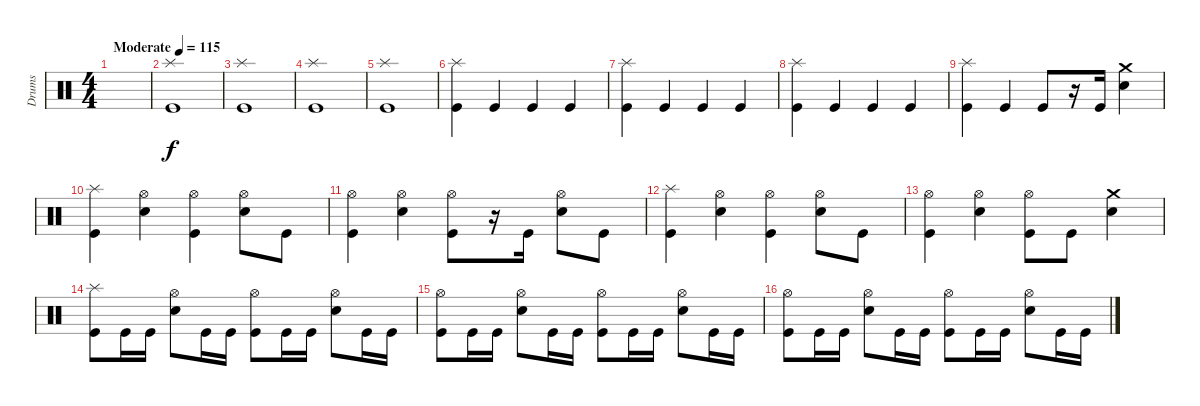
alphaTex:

\track ("Drums" "Drums") {instrument percussion}
\staff {score}
\articulation defaults
\ts (4 4)
\tempo (115 "Moderate")
\clef neutral
\ks c
|
("Splash (hit)" "Kick (hit)").1 |
("Splash (hit)" "Kick (hit)").1 |
("Splash (hit)" "Kick (hit)").1 |
("Splash (hit)" "Kick (hit)").1 |
("Splash (hit)" "Kick (hit)").4 "Kick (hit)".4 "Kick (hit)".4 "Kick (hit)".4 |
("Splash (hit)" "Kick (hit)").4 "Kick (hit)".4 "Kick (hit)".4 "Kick (hit)".4 |
("Splash (hit)" "Kick (hit)").4 "Kick (hit)".4 "Kick (hit)".4 "Kick (hit)".4 |
("Splash (hit)" "Kick (hit)").4 "Kick (hit)".4 "Kick (hit)".8 r.16 "Kick (hit)".16 ("Crash medium (hit)" "Snare (hit) 2").4 |
("Splash (hit)" "Kick (hit)").4 ("Hi-Hat (open)" "Snare (hit) 2").4 ("Hi-Hat (open)" "Kick (hit)").4 ("Hi-Hat (open)" "Snare (hit) 2").8 "Kick (hit)".8 |
("Hi-Hat (open)" "Kick (hit)").4 ("Hi-Hat (open)" "Snare (hit) 2").4 ("Hi-Hat (open)" "Kick (hit)").8 r.16 "Kick (hit)".16 ("Hi-Hat (open)" "Snare (hit) 2").8 "Kick (hit)".8 |
("Splash (hit)" "Kick (hit)").4 ("Hi-Hat (open)" "Snare (hit) 2").4 ("Hi-Hat (open)" "Kick (hit)").4 ("Hi-Hat (open)" "Snare (hit) 2").8 "Kick (hit)".8 |
("Hi-Hat (open)" "Kick (hit)").4 ("Hi-Hat (open)" "Snare (hit) 2").4 ("Hi-Hat (open)" "Kick (hit)").8 "Kick (hit)".8 ("Crash medium (hit)" "Snare (hit) 2").4 |
("Splash (hit)" "Kick (hit)").8 "Kick (hit)".16 "Kick (hit)".16 ("Hi-Hat (open)" "Snare (hit) 2").8 "Kick (hit)".16 "Kick (hit)".16 ("Hi-Hat (open)" "Kick (hit)").8 "Kick (hit)".16 "Kick (hit)".16 ("Hi-Hat (open)" "Snare (hit) 2").8 "Kick (hit)".16 "Kick (hit)".16 |
("Hi-Hat (open)" "Kick (hit)").8 "Kick (hit)".16 "Kick (hit)".16 ("Hi-Hat (open)" "Snare (hit) 2").8 "Kick (hit)".16 "Kick (hit)".16 ("Hi-Hat (open)" "Kick (hit)").8 "Kick (hit)".16 "Kick (hit)".16 ("Hi-Hat (open)" "Snare (hit) 2").8 "Kick (hit)".16 "Kick (hit)".16 |
("Hi-Hat (open)" "Kick (hit)").8 "Kick (hit)".16 "Kick (hit)".16 ("Hi-Hat (open)" "Snare (hit) 2").8 "Kick (hit)".16 "Kick (hit)".16 ("Hi-Hat (open)" "Kick (hit)").8 "Kick (hit)".16 "Kick (hit)".16 ("Hi-Hat (open)" "Snare (hit) 2").8 "Kick (hit)".16 "Kick (hit)".16
